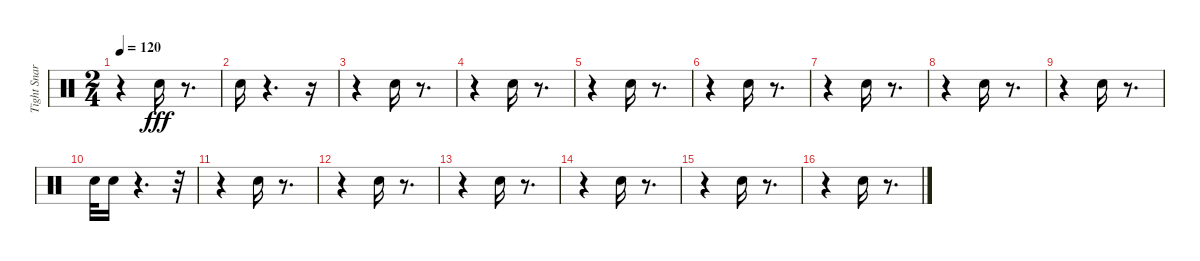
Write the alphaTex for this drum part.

\track ("Tight Snare (1) (1) (1) (1)" "Tight Snar") {instrument percussion}
\staff {score}
\articulation defaults
\ts (2 4)
\tempo 120
\clef neutral
\ks c
r.4{dy fff} "Electric Snare (hit)".16 r.8{d} |
"Electric Snare (hit)".16 r.4{d} r.16 |
r.4 "Electric Snare (hit)".16 r.8{d} |
r.4 "Electric Snare (hit)".16 r.8{d} |
r.4 "Electric Snare (hit)".16 r.8{d} |
r.4 "Electric Snare (hit)".16 r.8{d} |
r.4 "Electric Snare (hit)".16 r.8{d} |
r.4 "Electric Snare (hit)".16 r.8{d} |
r.4 "Electric Snare (hit)".16 r.8{d} |
"Electric Snare (hit)".32 "Electric Snare (hit)".16 r.4{d} r.32 |
r.4 "Electric Snare (hit)".16 r.8{d} |
r.4 "Electric Snare (hit)".16 r.8{d} |
r.4 "Electric Snare (hit)".16 r.8{d} |
r.4 "Electric Snare (hit)".16 r.8{d} |
r.4 "Electric Snare (hit)".16 r.8{d} |
r.4 "Electric Snare (hit)".16 r.8{d}
